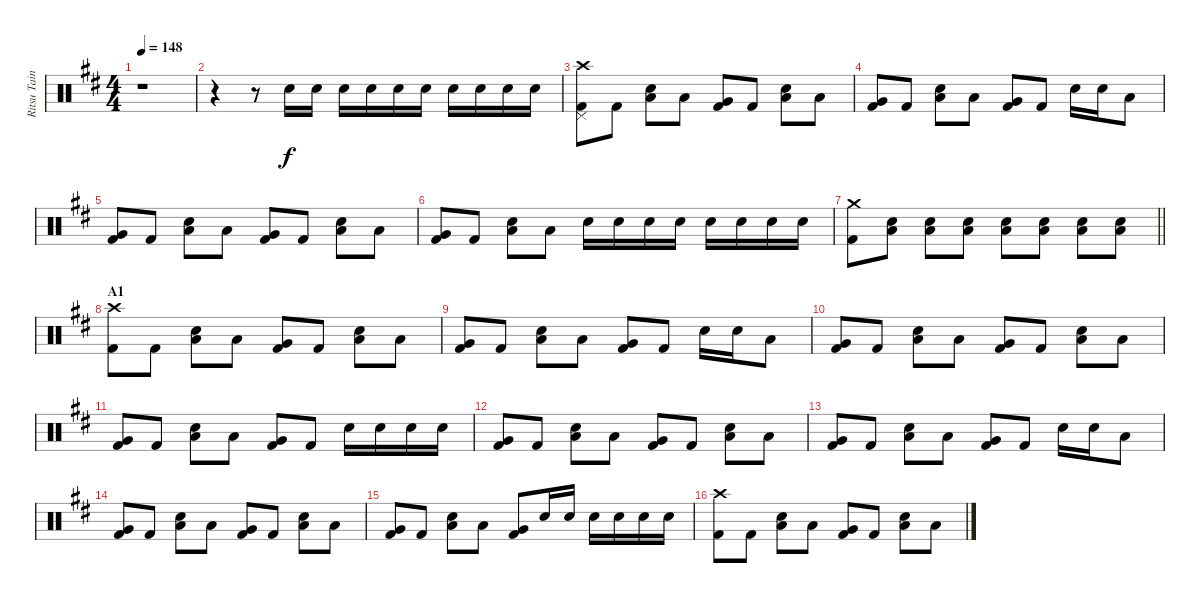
\track ("Ritsu Tainaka" "Ritsu Tain") {instrument percussion}
\staff {score}
\articulation defaults
\ts (4 4)
\tempo 148
\clef neutral
\ks d
r.1{dy f} |
r.4 r.8 "Snare (hit) 2".16 "Snare (hit) 2".16 "Snare (hit) 2".16 "Snare (hit) 2".16 "Snare (hit) 2".16 "Snare (hit) 2".16 "Snare (hit) 2".16 "Snare (hit) 2".16 "Snare (hit) 2".16 "Snare (hit) 2".16 |
("Crash high (hit)" "Pedal Hi-Hat (hit)" "Kick (hit) 2").8 "Kick (hit) 2".8 ("Snare (hit) 2" "Low Floor Tom (hit)").8 "Low Tom (hit)".8 ("Very Low Tom (hit)" "Kick (hit) 2").8 "Kick (hit) 2".8 ("Snare (hit) 2" "Low Floor Tom (hit)").8 "Low Tom (hit)".8 |
("Very Low Tom (hit)" "Kick (hit) 2").8 "Kick (hit) 2".8 ("Snare (hit) 2" "Low Floor Tom (hit)").8 "Low Tom (hit)".8 ("Very Low Tom (hit)" "Kick (hit) 2").8 "Kick (hit) 2".8 "Snare (hit) 2".16 "Snare (hit) 2".16 "Low Tom (hit)".8 |
("Very Low Tom (hit)" "Kick (hit) 2").8 "Kick (hit) 2".8 ("Snare (hit) 2" "Low Floor Tom (hit)").8 "Low Tom (hit)".8 ("Very Low Tom (hit)" "Kick (hit) 2").8 "Kick (hit) 2".8 ("Snare (hit) 2" "Low Floor Tom (hit)").8 "Low Tom (hit)".8 |
("Very Low Tom (hit)" "Kick (hit) 2").8 "Kick (hit) 2".8 ("Snare (hit) 2" "Low Floor Tom (hit)").8 "Low Tom (hit)".8 "Snare (hit) 2".16 "Snare (hit) 2".16 "Snare (hit) 2".16 "Snare (hit) 2".16 "Snare (hit) 2".16 "Snare (hit) 2".16 "Snare (hit) 2".16 "Snare (hit) 2".16 |
\barLineRight lightlight
("Crash medium (hit)" "Kick (hit) 2").8 ("Snare (hit) 2" "Low Floor Tom (hit)").8 ("Snare (hit) 2" "Low Floor Tom (hit)").8 ("Snare (hit) 2" "Low Floor Tom (hit)").8 ("Snare (hit) 2" "Low Floor Tom (hit)").8 ("Snare (hit) 2" "Low Floor Tom (hit)").8 ("Snare (hit) 2" "Low Floor Tom (hit)").8 ("Snare (hit) 2" "Low Floor Tom (hit)").8 |
\section ("" "A1")
("Crash high (hit)" "Kick (hit) 2").8 "Kick (hit) 2".8 ("Snare (hit) 2" "Low Floor Tom (hit)").8 "Low Tom (hit)".8 ("Very Low Tom (hit)" "Kick (hit) 2").8 "Kick (hit) 2".8 ("Snare (hit) 2" "Low Floor Tom (hit)").8 "Low Tom (hit)".8 |
("Very Low Tom (hit)" "Kick (hit) 2").8 "Kick (hit) 2".8 ("Snare (hit) 2" "Low Floor Tom (hit)").8 "Low Tom (hit)".8 ("Very Low Tom (hit)" "Kick (hit) 2").8 "Kick (hit) 2".8 "Snare (hit) 2".16 "Snare (hit) 2".16 "Low Tom (hit)".8 |
("Very Low Tom (hit)" "Kick (hit) 2").8 "Kick (hit) 2".8 ("Snare (hit) 2" "Low Floor Tom (hit)").8 "Low Tom (hit)".8 ("Very Low Tom (hit)" "Kick (hit) 2").8 "Kick (hit) 2".8 ("Snare (hit) 2" "Low Floor Tom (hit)").8 "Low Tom (hit)".8 |
("Very Low Tom (hit)" "Kick (hit) 2").8 "Kick (hit) 2".8 ("Snare (hit) 2" "Low Floor Tom (hit)").8 "Low Tom (hit)".8 ("Very Low Tom (hit)" "Kick (hit) 2").8 "Kick (hit) 2".8 "Snare (hit) 2".16 "Snare (hit) 2".16 "Snare (hit) 2".16 "Snare (hit) 2".16 |
("Very Low Tom (hit)" "Kick (hit) 2").8 "Kick (hit) 2".8 ("Snare (hit) 2" "Low Floor Tom (hit)").8 "Low Tom (hit)".8 ("Very Low Tom (hit)" "Kick (hit) 2").8 "Kick (hit) 2".8 ("Snare (hit) 2" "Low Floor Tom (hit)").8 "Low Tom (hit)".8 |
("Very Low Tom (hit)" "Kick (hit) 2").8 "Kick (hit) 2".8 ("Snare (hit) 2" "Low Floor Tom (hit)").8 "Low Tom (hit)".8 ("Very Low Tom (hit)" "Kick (hit) 2").8 "Kick (hit) 2".8 "Snare (hit) 2".16 "Snare (hit) 2".16 "Low Tom (hit)".8 |
("Very Low Tom (hit)" "Kick (hit) 2").8 "Kick (hit) 2".8 ("Snare (hit) 2" "Low Floor Tom (hit)").8 "Low Tom (hit)".8 ("Very Low Tom (hit)" "Kick (hit) 2").8 "Kick (hit) 2".8 ("Snare (hit) 2" "Low Floor Tom (hit)").8 "Low Tom (hit)".8 |
("Very Low Tom (hit)" "Kick (hit) 2").8 "Kick (hit) 2".8 ("Snare (hit) 2" "Low Floor Tom (hit)").8 "Low Tom (hit)".8 ("Very Low Tom (hit)" "Kick (hit) 2").8 "Snare (hit) 2".16 "Snare (hit) 2".16 "Snare (hit) 2".16 "Snare (hit) 2".16 "Snare (hit) 2".16 "Snare (hit) 2".16 |
("Crash high (hit)" "Kick (hit) 2").8 "Kick (hit) 2".8 ("Snare (hit) 2" "Low Floor Tom (hit)").8 "Low Tom (hit)".8 ("Very Low Tom (hit)" "Kick (hit) 2").8 "Kick (hit) 2".8 ("Snare (hit) 2" "Low Floor Tom (hit)").8 "Low Tom (hit)".8
